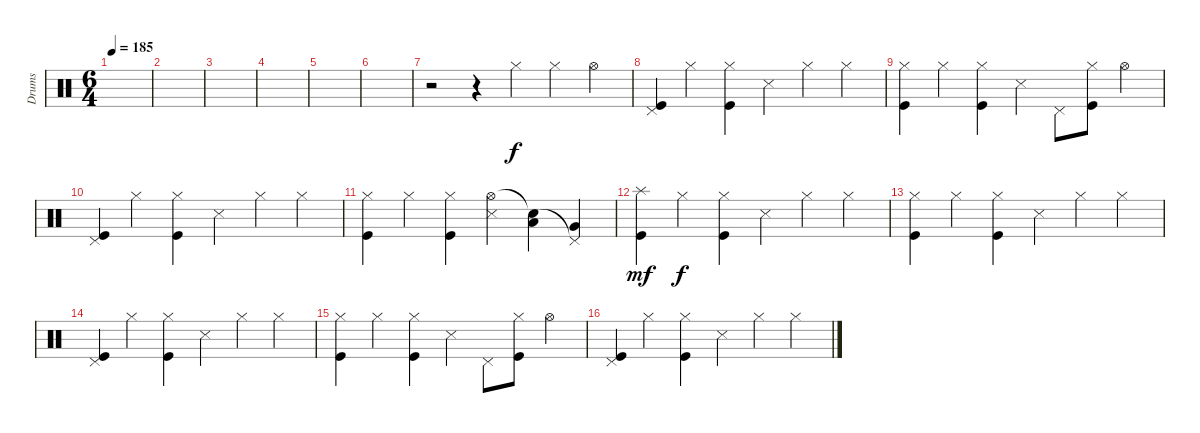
\track ("Drums" "Drums") {instrument percussion}
\staff {score}
\articulation defaults
\ts (6 4)
\tempo 185
\clef neutral
\ks c
|
|
|
|
|
|
r.2 r.4 "Hi-Hat (closed)".4 "Hi-Hat (closed)".4 "Hi-Hat (open)".4 |
("Pedal Hi-Hat (hit)" "Kick (hit)").4 "Hi-Hat (closed)".4 ("Hi-Hat (closed)" "Kick (hit)").4 "Snare (side stick) 3".4 "Hi-Hat (closed)".4 "Hi-Hat (closed)".4 |
("Hi-Hat (closed)" "Kick (hit)").4 "Hi-Hat (closed)".4 ("Hi-Hat (closed)" "Kick (hit)").4 "Snare (side stick) 3".4 "Pedal Hi-Hat (hit)".8 ("Hi-Hat (closed)" "Kick (hit)").8 "Hi-Hat (open)".4 |
("Pedal Hi-Hat (hit)" "Kick (hit)").4 "Hi-Hat (closed)".4 ("Hi-Hat (closed)" "Kick (hit)").4 "Snare (side stick) 3".4 "Hi-Hat (closed)".4 "Hi-Hat (closed)".4 |
("Hi-Hat (closed)" "Kick (hit)").4 "Hi-Hat (closed)".4 ("Hi-Hat (closed)" "Kick (hit)").4 ("Hi-Hat (open)" "Snare (side stick) 3").4 ("Snare (hit)"{t} "Low Tom (hit)").4 ("Pedal Hi-Hat (hit)"{t} "Very Low Tom (hit)").4 |
("Splash (hit)" "Kick (hit)").4{dy mf} "Hi-Hat (closed)".4{dy f} ("Hi-Hat (closed)" "Kick (hit)").4 "Snare (side stick) 3".4 "Hi-Hat (closed)".4 "Hi-Hat (closed)".4 |
("Hi-Hat (closed)" "Kick (hit)").4 "Hi-Hat (closed)".4 ("Hi-Hat (closed)" "Kick (hit)").4 "Snare (side stick) 3".4 "Hi-Hat (closed)".4 "Hi-Hat (closed)".4 |
("Pedal Hi-Hat (hit)" "Kick (hit)").4 "Hi-Hat (closed)".4 ("Hi-Hat (closed)" "Kick (hit)").4 "Snare (side stick) 3".4 "Hi-Hat (closed)".4 "Hi-Hat (closed)".4 |
("Hi-Hat (closed)" "Kick (hit)").4 "Hi-Hat (closed)".4 ("Hi-Hat (closed)" "Kick (hit)").4 "Snare (side stick) 3".4 "Pedal Hi-Hat (hit)".8 ("Hi-Hat (closed)" "Kick (hit)").8 "Hi-Hat (open)".4 |
("Pedal Hi-Hat (hit)" "Kick (hit)").4 "Hi-Hat (closed)".4 ("Hi-Hat (closed)" "Kick (hit)").4 "Snare (side stick) 3".4 "Hi-Hat (closed)".4 "Hi-Hat (closed)".4
